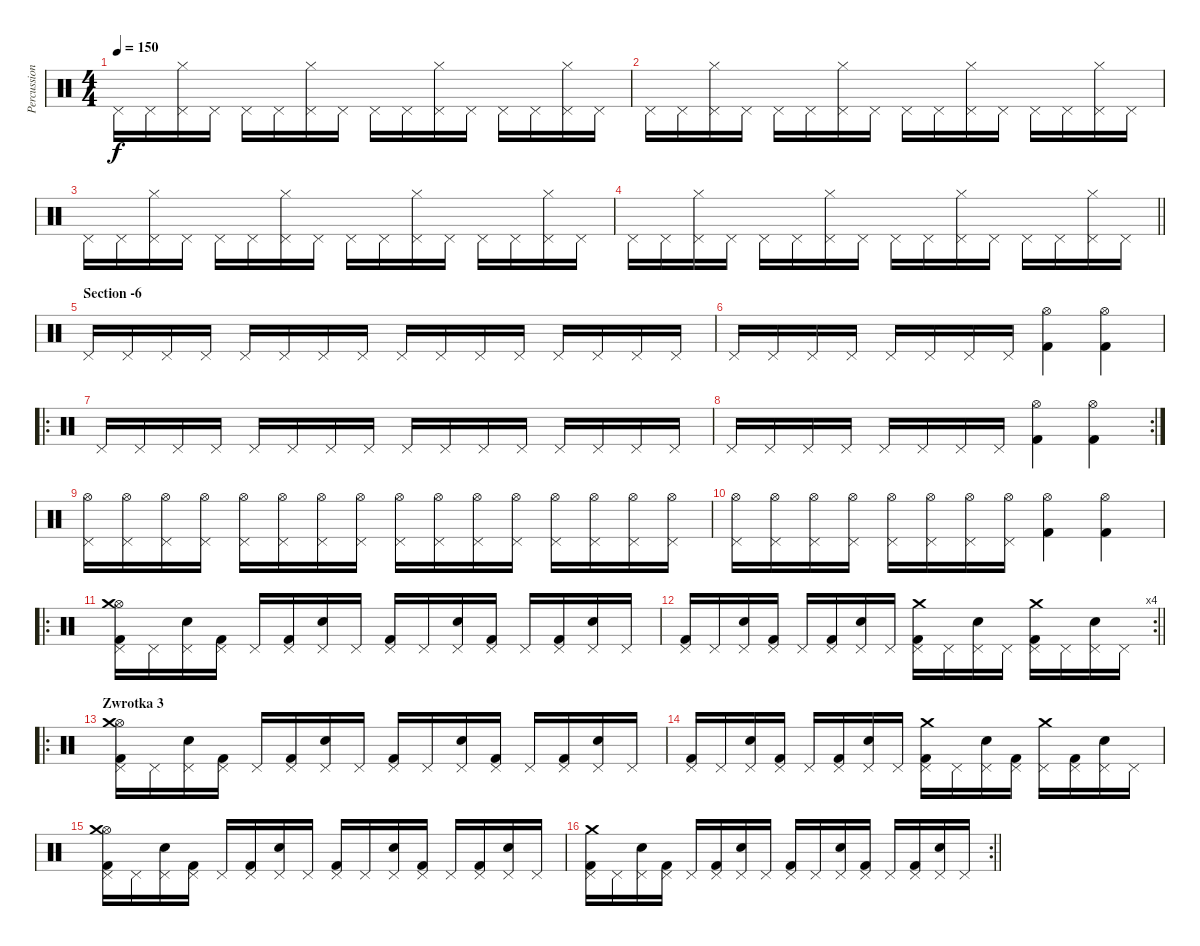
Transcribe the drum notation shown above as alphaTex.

\track ("Percussion" "Percussion") {instrument percussion}
\staff {score}
\articulation defaults
\ts (4 4)
\tempo 150
\clef neutral
\ks c "Pedal Hi-Hat (hit)".16{dy f} "Pedal Hi-Hat (hit)".16
("Pedal Hi-Hat (hit)" "Hi-Hat (closed)").16 "Pedal Hi-Hat (hit)".16 "Pedal Hi-Hat (hit)".16 "Pedal Hi-Hat (hit)".16 ("Pedal Hi-Hat (hit)" "Hi-Hat (closed)").16 "Pedal Hi-Hat (hit)".16 "Pedal Hi-Hat (hit)".16 "Pedal Hi-Hat (hit)".16 ("Pedal Hi-Hat (hit)" "Hi-Hat (closed)").16 "Pedal Hi-Hat (hit)".16 "Pedal Hi-Hat (hit)".16 "Pedal Hi-Hat (hit)".16 ("Pedal Hi-Hat (hit)" "Hi-Hat (closed)").16 "Pedal Hi-Hat (hit)".16 |
"Pedal Hi-Hat (hit)".16 "Pedal Hi-Hat (hit)".16 ("Pedal Hi-Hat (hit)" "Hi-Hat (closed)").16 "Pedal Hi-Hat (hit)".16 "Pedal Hi-Hat (hit)".16 "Pedal Hi-Hat (hit)".16 ("Pedal Hi-Hat (hit)" "Hi-Hat (closed)").16 "Pedal Hi-Hat (hit)".16 "Pedal Hi-Hat (hit)".16 "Pedal Hi-Hat (hit)".16 ("Pedal Hi-Hat (hit)" "Hi-Hat (closed)").16 "Pedal Hi-Hat (hit)".16 "Pedal Hi-Hat (hit)".16 "Pedal Hi-Hat (hit)".16 ("Pedal Hi-Hat (hit)" "Hi-Hat (closed)").16 "Pedal Hi-Hat (hit)".16 |
"Pedal Hi-Hat (hit)".16 "Pedal Hi-Hat (hit)".16 ("Pedal Hi-Hat (hit)" "Hi-Hat (closed)").16 "Pedal Hi-Hat (hit)".16 "Pedal Hi-Hat (hit)".16 "Pedal Hi-Hat (hit)".16 ("Pedal Hi-Hat (hit)" "Hi-Hat (closed)").16 "Pedal Hi-Hat (hit)".16 "Pedal Hi-Hat (hit)".16 "Pedal Hi-Hat (hit)".16 ("Pedal Hi-Hat (hit)" "Hi-Hat (closed)").16 "Pedal Hi-Hat (hit)".16 "Pedal Hi-Hat (hit)".16 "Pedal Hi-Hat (hit)".16 ("Pedal Hi-Hat (hit)" "Hi-Hat (closed)").16 "Pedal Hi-Hat (hit)".16 |
\barLineRight lightlight "Pedal Hi-Hat (hit)".16 "Pedal Hi-Hat (hit)".16
("Pedal Hi-Hat (hit)" "Hi-Hat (closed)").16 "Pedal Hi-Hat (hit)".16 "Pedal Hi-Hat (hit)".16 "Pedal Hi-Hat (hit)".16 ("Pedal Hi-Hat (hit)" "Hi-Hat (closed)").16 "Pedal Hi-Hat (hit)".16 "Pedal Hi-Hat (hit)".16 "Pedal Hi-Hat (hit)".16 ("Pedal Hi-Hat (hit)" "Hi-Hat (closed)").16 "Pedal Hi-Hat (hit)".16 "Pedal Hi-Hat (hit)".16 "Pedal Hi-Hat (hit)".16 ("Pedal Hi-Hat (hit)" "Hi-Hat (closed)").16 "Pedal Hi-Hat (hit)".16 |
\section ("" "Section -6")
"Pedal Hi-Hat (hit)".16 "Pedal Hi-Hat (hit)".16 "Pedal Hi-Hat (hit)".16 "Pedal Hi-Hat (hit)".16 "Pedal Hi-Hat (hit)".16 "Pedal Hi-Hat (hit)".16 "Pedal Hi-Hat (hit)".16 "Pedal Hi-Hat (hit)".16 "Pedal Hi-Hat (hit)".16 "Pedal Hi-Hat (hit)".16 "Pedal Hi-Hat (hit)".16 "Pedal Hi-Hat (hit)".16 "Pedal Hi-Hat (hit)".16 "Pedal Hi-Hat (hit)".16 "Pedal Hi-Hat (hit)".16 "Pedal Hi-Hat (hit)".16 |
"Pedal Hi-Hat (hit)".16 "Pedal Hi-Hat (hit)".16 "Pedal Hi-Hat (hit)".16 "Pedal Hi-Hat (hit)".16 "Pedal Hi-Hat (hit)".16 "Pedal Hi-Hat (hit)".16 "Pedal Hi-Hat (hit)".16 "Pedal Hi-Hat (hit)".16 ("Kick (hit) 2" "Hi-Hat (open)").4 ("Kick (hit) 2" "Hi-Hat (open)").4 |
\ro "Pedal Hi-Hat (hit)".16 "Pedal Hi-Hat (hit)".16 "Pedal Hi-Hat (hit)".16 "Pedal Hi-Hat (hit)".16 "Pedal Hi-Hat (hit)".16 "Pedal Hi-Hat (hit)".16 "Pedal Hi-Hat (hit)".16 "Pedal Hi-Hat (hit)".16 "Pedal Hi-Hat (hit)".16 "Pedal Hi-Hat (hit)".16 "Pedal Hi-Hat (hit)".16 "Pedal Hi-Hat (hit)".16 "Pedal Hi-Hat (hit)".16 "Pedal Hi-Hat (hit)".16 "Pedal Hi-Hat (hit)".16 "Pedal Hi-Hat (hit)".16
|
\rc 2 "Pedal Hi-Hat (hit)".16 "Pedal Hi-Hat (hit)".16 "Pedal Hi-Hat (hit)".16 "Pedal Hi-Hat (hit)".16 "Pedal Hi-Hat (hit)".16 "Pedal Hi-Hat (hit)".16 "Pedal Hi-Hat (hit)".16 "Pedal Hi-Hat (hit)".16
("Kick (hit) 2" "Hi-Hat (open)").4 ("Kick (hit) 2" "Hi-Hat (open)").4 |
("Pedal Hi-Hat (hit)" "Hi-Hat (open)").16 ("Pedal Hi-Hat (hit)" "Hi-Hat (open)").16 ("Pedal Hi-Hat (hit)" "Hi-Hat (open)").16 ("Pedal Hi-Hat (hit)" "Hi-Hat (open)").16 ("Pedal Hi-Hat (hit)" "Hi-Hat (open)").16 ("Pedal Hi-Hat (hit)" "Hi-Hat (open)").16 ("Pedal Hi-Hat (hit)" "Hi-Hat (open)").16 ("Pedal Hi-Hat (hit)" "Hi-Hat (open)").16 ("Pedal Hi-Hat (hit)" "Hi-Hat (open)").16 ("Pedal Hi-Hat (hit)" "Hi-Hat (open)").16 ("Pedal Hi-Hat (hit)" "Hi-Hat (open)").16 ("Pedal Hi-Hat (hit)" "Hi-Hat (open)").16 ("Pedal Hi-Hat (hit)" "Hi-Hat (open)").16 ("Pedal Hi-Hat (hit)" "Hi-Hat (open)").16 ("Pedal Hi-Hat (hit)" "Hi-Hat (open)").16 ("Pedal Hi-Hat (hit)" "Hi-Hat (open)").16 |
("Pedal Hi-Hat (hit)" "Hi-Hat (open)").16 ("Pedal Hi-Hat (hit)" "Hi-Hat (open)").16 ("Pedal Hi-Hat (hit)" "Hi-Hat (open)").16 ("Pedal Hi-Hat (hit)" "Hi-Hat (open)").16 ("Pedal Hi-Hat (hit)" "Hi-Hat (open)").16 ("Pedal Hi-Hat (hit)" "Hi-Hat (open)").16 ("Pedal Hi-Hat (hit)" "Hi-Hat (open)").16 ("Pedal Hi-Hat (hit)" "Hi-Hat (open)").16 ("Kick (hit) 2" "Hi-Hat (open)").4 ("Kick (hit) 2" "Hi-Hat (open)").4 |
\ro
("Pedal Hi-Hat (hit)" "Kick (hit) 2" "Hi-Hat (open)" "Crash medium (hit)").16 "Pedal Hi-Hat (hit)".16 ("Pedal Hi-Hat (hit)" "Snare (hit) 2").16 ("Pedal Hi-Hat (hit)" "Kick (hit) 2").16 "Pedal Hi-Hat (hit)".16 ("Pedal Hi-Hat (hit)" "Kick (hit) 2").16 ("Pedal Hi-Hat (hit)" "Snare (hit) 2").16 "Pedal Hi-Hat (hit)".16 ("Pedal Hi-Hat (hit)" "Kick (hit) 2").16 "Pedal Hi-Hat (hit)".16 ("Pedal Hi-Hat (hit)" "Snare (hit) 2").16 ("Pedal Hi-Hat (hit)" "Kick (hit) 2").16 "Pedal Hi-Hat (hit)".16 ("Pedal Hi-Hat (hit)" "Kick (hit) 2").16 ("Pedal Hi-Hat (hit)" "Snare (hit) 2").16 "Pedal Hi-Hat (hit)".16 |
\rc 4
\barLineRight lightlight
("Pedal Hi-Hat (hit)" "Kick (hit) 2").16 "Pedal Hi-Hat (hit)".16 ("Pedal Hi-Hat (hit)" "Snare (hit) 2").16 ("Pedal Hi-Hat (hit)" "Kick (hit) 2").16 "Pedal Hi-Hat (hit)".16 ("Pedal Hi-Hat (hit)" "Kick (hit) 2").16 ("Pedal Hi-Hat (hit)" "Snare (hit) 2").16 "Pedal Hi-Hat (hit)".16 ("Pedal Hi-Hat (hit)" "Kick (hit) 2" "Crash medium (hit)").16 "Pedal Hi-Hat (hit)".16 ("Pedal Hi-Hat (hit)" "Snare (hit) 2").16 "Pedal Hi-Hat (hit)".16 ("Pedal Hi-Hat (hit)" "Kick (hit) 2" "Crash medium (hit)").16 "Pedal Hi-Hat (hit)".16 ("Pedal Hi-Hat (hit)" "Snare (hit) 2").16 "Pedal Hi-Hat (hit)".16 |
\ro
\section ("" "Zwrotka 3")
("Pedal Hi-Hat (hit)" "Kick (hit) 2" "Hi-Hat (open)" "Crash medium (hit)").16 "Pedal Hi-Hat (hit)".16 ("Pedal Hi-Hat (hit)" "Snare (hit) 2").16 ("Pedal Hi-Hat (hit)" "Kick (hit) 2").16 "Pedal Hi-Hat (hit)".16 ("Pedal Hi-Hat (hit)" "Kick (hit) 2").16 ("Pedal Hi-Hat (hit)" "Snare (hit) 2").16 "Pedal Hi-Hat (hit)".16 ("Pedal Hi-Hat (hit)" "Kick (hit) 2").16 "Pedal Hi-Hat (hit)".16 ("Pedal Hi-Hat (hit)" "Snare (hit) 2").16 ("Pedal Hi-Hat (hit)" "Kick (hit) 2").16 "Pedal Hi-Hat (hit)".16 ("Pedal Hi-Hat (hit)" "Kick (hit) 2").16 ("Pedal Hi-Hat (hit)" "Snare (hit) 2").16 "Pedal Hi-Hat (hit)".16 |
("Pedal Hi-Hat (hit)" "Kick (hit) 2").16 "Pedal Hi-Hat (hit)".16 ("Pedal Hi-Hat (hit)" "Snare (hit) 2").16 ("Pedal Hi-Hat (hit)" "Kick (hit) 2").16 "Pedal Hi-Hat (hit)".16 ("Pedal Hi-Hat (hit)" "Kick (hit) 2").16 ("Pedal Hi-Hat (hit)" "Snare (hit) 2").16 "Pedal Hi-Hat (hit)".16 ("Pedal Hi-Hat (hit)" "Kick (hit) 2" "Crash medium (hit)").16 "Pedal Hi-Hat (hit)".16 ("Pedal Hi-Hat (hit)" "Snare (hit) 2").16 ("Pedal Hi-Hat (hit)" "Kick (hit) 2").16 ("Pedal Hi-Hat (hit)" "Crash medium (hit)").16 ("Pedal Hi-Hat (hit)" "Kick (hit) 2").16 ("Pedal Hi-Hat (hit)" "Snare (hit) 2").16 "Pedal Hi-Hat (hit)".16 |
("Pedal Hi-Hat (hit)" "Kick (hit) 2" "Hi-Hat (open)" "Crash medium (hit)").16 "Pedal Hi-Hat (hit)".16 ("Pedal Hi-Hat (hit)" "Snare (hit) 2").16 ("Pedal Hi-Hat (hit)" "Kick (hit) 2").16 "Pedal Hi-Hat (hit)".16 ("Pedal Hi-Hat (hit)" "Kick (hit) 2").16 ("Pedal Hi-Hat (hit)" "Snare (hit) 2").16 "Pedal Hi-Hat (hit)".16 ("Pedal Hi-Hat (hit)" "Kick (hit) 2").16 "Pedal Hi-Hat (hit)".16 ("Pedal Hi-Hat (hit)" "Snare (hit) 2").16 ("Pedal Hi-Hat (hit)" "Kick (hit) 2").16 "Pedal Hi-Hat (hit)".16 ("Pedal Hi-Hat (hit)" "Kick (hit) 2").16 ("Pedal Hi-Hat (hit)" "Snare (hit) 2").16 "Pedal Hi-Hat (hit)".16 |
\rc 2
\barLineRight lightlight
("Pedal Hi-Hat (hit)" "Kick (hit) 2" "Crash medium (hit)").16 "Pedal Hi-Hat (hit)".16 ("Pedal Hi-Hat (hit)" "Snare (hit) 2").16 ("Pedal Hi-Hat (hit)" "Kick (hit) 2").16 "Pedal Hi-Hat (hit)".16 ("Pedal Hi-Hat (hit)" "Kick (hit) 2").16 ("Pedal Hi-Hat (hit)" "Snare (hit) 2").16 "Pedal Hi-Hat (hit)".16 ("Pedal Hi-Hat (hit)" "Kick (hit) 2").16 "Pedal Hi-Hat (hit)".16 ("Pedal Hi-Hat (hit)" "Snare (hit) 2").16 ("Pedal Hi-Hat (hit)" "Kick (hit) 2").16 "Pedal Hi-Hat (hit)".16 ("Pedal Hi-Hat (hit)" "Kick (hit) 2").16 ("Pedal Hi-Hat (hit)" "Snare (hit) 2").16 "Pedal Hi-Hat (hit)".16
